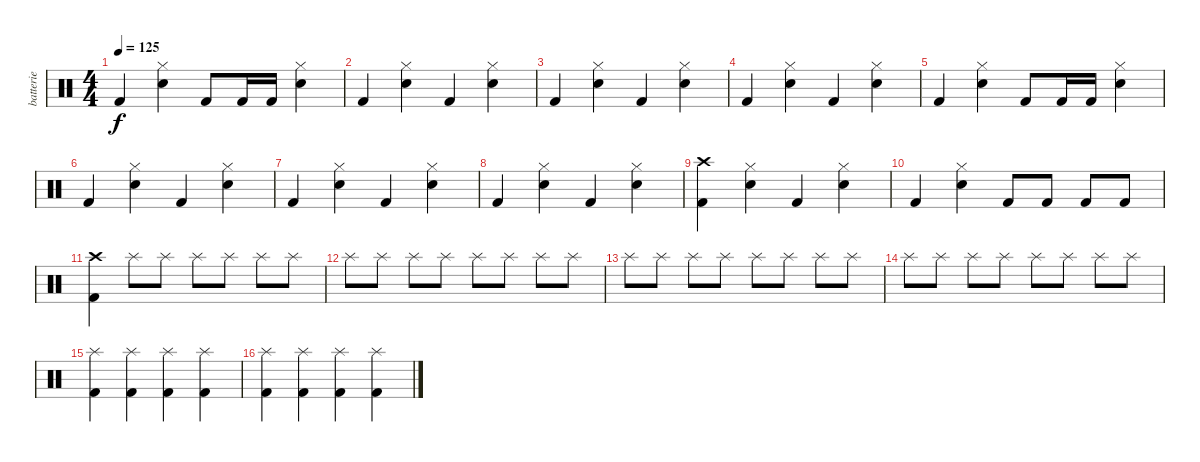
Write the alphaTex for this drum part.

\track ("batterie" "batterie") {instrument percussion}
\staff {score}
\articulation defaults
\ts (4 4)
\tempo 125
\clef neutral
\ks c "Kick (hit) 2".4{dy f}
("Hi-Hat (closed)" "Snare (hit) 2").4 "Kick (hit) 2".8 "Kick (hit) 2".16 "Kick (hit) 2".16 ("Hi-Hat (closed)" "Snare (hit) 2").4 |
"Kick (hit) 2".4 ("Hi-Hat (closed)" "Snare (hit) 2").4 "Kick (hit) 2".4 ("Hi-Hat (closed)" "Snare (hit) 2").4 |
"Kick (hit) 2".4 ("Hi-Hat (closed)" "Snare (hit) 2").4 "Kick (hit) 2".4 ("Hi-Hat (closed)" "Snare (hit) 2").4 |
"Kick (hit) 2".4 ("Hi-Hat (closed)" "Snare (hit) 2").4 "Kick (hit) 2".4 ("Hi-Hat (closed)" "Snare (hit) 2").4 |
"Kick (hit) 2".4 ("Hi-Hat (closed)" "Snare (hit) 2").4 "Kick (hit) 2".8 "Kick (hit) 2".16 "Kick (hit) 2".16 ("Hi-Hat (closed)" "Snare (hit) 2").4 |
"Kick (hit) 2".4 ("Hi-Hat (closed)" "Snare (hit) 2").4 "Kick (hit) 2".4 ("Hi-Hat (closed)" "Snare (hit) 2").4 |
"Kick (hit) 2".4 ("Hi-Hat (closed)" "Snare (hit) 2").4 "Kick (hit) 2".4 ("Hi-Hat (closed)" "Snare (hit) 2").4 |
"Kick (hit) 2".4 ("Hi-Hat (closed)" "Snare (hit) 2").4 "Kick (hit) 2".4 ("Hi-Hat (closed)" "Snare (hit) 2").4 |
("Crash high (hit)" "Kick (hit) 2").4 ("Hi-Hat (closed)" "Snare (hit) 2").4 "Kick (hit) 2".4 ("Hi-Hat (closed)" "Snare (hit) 2").4 |
"Kick (hit) 2".4 ("Hi-Hat (closed)" "Snare (hit) 2").4 "Kick (hit) 2".8 "Kick (hit) 2".8 "Kick (hit) 2".8 "Kick (hit) 2".8 |
("Crash high (hit)" "Kick (hit) 2").4 "Splash (hit)".8 "Splash (hit)".8 "Splash (hit)".8 "Splash (hit)".8 "Splash (hit)".8 "Splash (hit)".8 |
"Splash (hit)".8 "Splash (hit)".8 "Splash (hit)".8 "Splash (hit)".8 "Splash (hit)".8 "Splash (hit)".8 "Splash (hit)".8 "Splash (hit)".8 |
"Splash (hit)".8 "Splash (hit)".8 "Splash (hit)".8 "Splash (hit)".8 "Splash (hit)".8 "Splash (hit)".8 "Splash (hit)".8 "Splash (hit)".8 |
"Splash (hit)".8 "Splash (hit)".8 "Splash (hit)".8 "Splash (hit)".8 "Splash (hit)".8 "Splash (hit)".8 "Splash (hit)".8 "Splash (hit)".8 |
("Splash (hit)" "Kick (hit) 2").4 ("Splash (hit)" "Kick (hit) 2").4 ("Splash (hit)" "Kick (hit) 2").4 ("Splash (hit)" "Kick (hit) 2").4 |
("Splash (hit)" "Kick (hit) 2").4 ("Splash (hit)" "Kick (hit) 2").4 ("Splash (hit)" "Kick (hit) 2").4 ("Splash (hit)" "Kick (hit) 2").4
